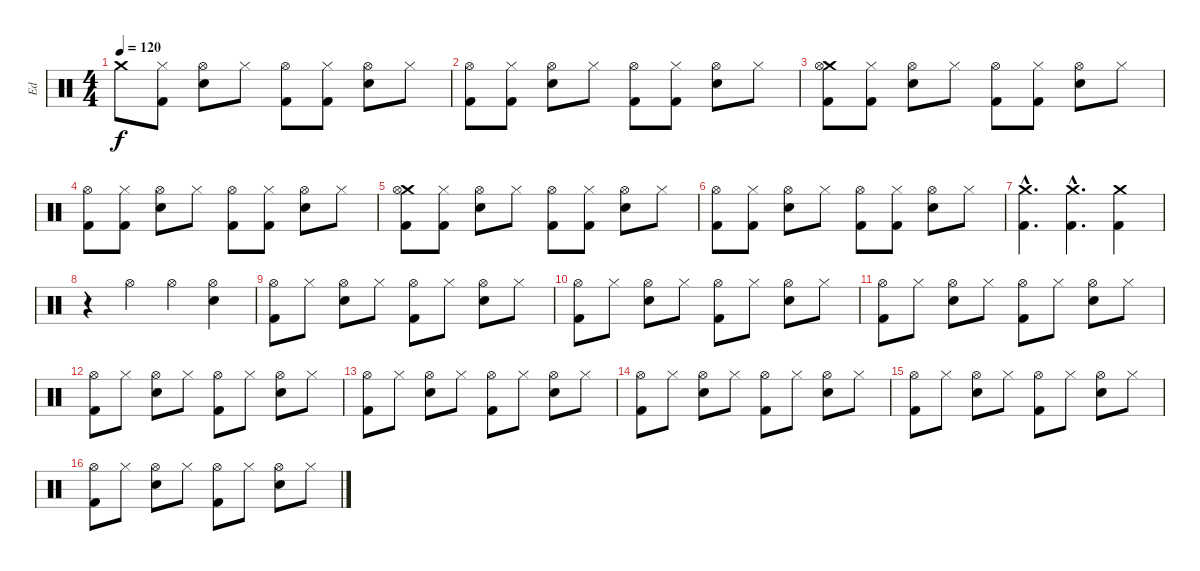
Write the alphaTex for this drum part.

\track ("Ed" "Ed") {instrument percussion}
\staff {score}
\articulation defaults
\ts (4 4)
\tempo 120
\clef neutral
\ks c "Crash medium (hit)"{t}.8{dy f}
("Hi-Hat (closed)" "Kick (hit) 2").8 ("Hi-Hat (open)" "Snare (hit) 2").8 "Hi-Hat (closed)".8 ("Kick (hit) 2" "Hi-Hat (open)").8 ("Kick (hit) 2" "Hi-Hat (closed)").8 ("Snare (hit) 2" "Hi-Hat (open)").8 "Hi-Hat (closed)".8 |
("Hi-Hat (open)" "Kick (hit) 2").8 ("Hi-Hat (closed)" "Kick (hit) 2").8 ("Hi-Hat (open)" "Snare (hit) 2").8 "Hi-Hat (closed)".8 ("Hi-Hat (open)" "Kick (hit) 2").8 ("Hi-Hat (closed)" "Kick (hit) 2").8 ("Hi-Hat (open)" "Snare (hit) 2").8 "Hi-Hat (closed)".8 |
("Crash medium (hit)" "Hi-Hat (open)" "Kick (hit) 2").8 ("Hi-Hat (closed)" "Kick (hit) 2").8 ("Hi-Hat (open)" "Snare (hit) 2").8 "Hi-Hat (closed)".8 ("Hi-Hat (open)" "Kick (hit) 2").8 ("Hi-Hat (closed)" "Kick (hit) 2").8 ("Hi-Hat (open)" "Snare (hit) 2").8 "Hi-Hat (closed)".8 |
("Hi-Hat (open)" "Kick (hit) 2").8 ("Hi-Hat (closed)" "Kick (hit) 2").8 ("Hi-Hat (open)" "Snare (hit) 2").8 "Hi-Hat (closed)".8 ("Hi-Hat (open)" "Kick (hit) 2").8 ("Hi-Hat (closed)" "Kick (hit) 2").8 ("Hi-Hat (open)" "Snare (hit) 2").8 "Hi-Hat (closed)".8 |
("Crash medium (hit)" "Hi-Hat (open)" "Kick (hit) 2").8 ("Hi-Hat (closed)" "Kick (hit) 2").8 ("Hi-Hat (open)" "Snare (hit) 2").8 "Hi-Hat (closed)".8 ("Hi-Hat (open)" "Kick (hit) 2").8 ("Hi-Hat (closed)" "Kick (hit) 2").8 ("Hi-Hat (open)" "Snare (hit) 2").8 "Hi-Hat (closed)".8 |
("Hi-Hat (open)" "Kick (hit) 2").8 ("Hi-Hat (closed)" "Kick (hit) 2").8 ("Hi-Hat (open)" "Snare (hit) 2").8 "Hi-Hat (closed)".8 ("Hi-Hat (open)" "Kick (hit) 2").8 ("Hi-Hat (closed)" "Kick (hit) 2").8 ("Hi-Hat (open)" "Snare (hit) 2").8 "Hi-Hat (closed)".8 |
("Crash medium (hit)"{hac} "Kick (hit) 2"{hac}).4{d} ("Crash medium (hit)"{hac} "Kick (hit) 2"{hac}).4{d} ("Crash medium (hit)" "Kick (hit) 2").4 |
r.4 "Hi-Hat (open)".4 "Hi-Hat (open)".4 ("Snare (hit) 2" "Hi-Hat (open)").4 |
("Hi-Hat (open)" "Kick (hit) 2").8 "Hi-Hat (closed)".8 ("Hi-Hat (open)" "Snare (hit) 2").8 "Hi-Hat (closed)".8 ("Hi-Hat (open)" "Kick (hit) 2").8 "Hi-Hat (closed)".8 ("Hi-Hat (open)" "Snare (hit) 2").8 "Hi-Hat (closed)".8 |
("Hi-Hat (open)" "Kick (hit) 2").8 "Hi-Hat (closed)".8 ("Hi-Hat (open)" "Snare (hit) 2").8 "Hi-Hat (closed)".8 ("Hi-Hat (open)" "Kick (hit) 2").8 "Hi-Hat (closed)".8 ("Hi-Hat (open)" "Snare (hit) 2").8 "Hi-Hat (closed)".8 |
("Hi-Hat (open)" "Kick (hit) 2").8 "Hi-Hat (closed)".8 ("Hi-Hat (open)" "Snare (hit) 2").8 "Hi-Hat (closed)".8 ("Hi-Hat (open)" "Kick (hit) 2").8 "Hi-Hat (closed)".8 ("Hi-Hat (open)" "Snare (hit) 2").8 "Hi-Hat (closed)".8 |
("Hi-Hat (open)" "Kick (hit) 2").8 "Hi-Hat (closed)".8 ("Hi-Hat (open)" "Snare (hit) 2").8 "Hi-Hat (closed)".8 ("Hi-Hat (open)" "Kick (hit) 2").8 "Hi-Hat (closed)".8 ("Hi-Hat (open)" "Snare (hit) 2").8 "Hi-Hat (closed)".8 |
("Hi-Hat (open)" "Kick (hit) 2").8 "Hi-Hat (closed)".8 ("Hi-Hat (open)" "Snare (hit) 2").8 "Hi-Hat (closed)".8 ("Hi-Hat (open)" "Kick (hit) 2").8 "Hi-Hat (closed)".8 ("Hi-Hat (open)" "Snare (hit) 2").8 "Hi-Hat (closed)".8 |
("Hi-Hat (open)" "Kick (hit) 2").8 "Hi-Hat (closed)".8 ("Hi-Hat (open)" "Snare (hit) 2").8 "Hi-Hat (closed)".8 ("Hi-Hat (open)" "Kick (hit) 2").8 "Hi-Hat (closed)".8 ("Hi-Hat (open)" "Snare (hit) 2").8 "Hi-Hat (closed)".8 |
("Hi-Hat (open)" "Kick (hit) 2").8 "Hi-Hat (closed)".8 ("Hi-Hat (open)" "Snare (hit) 2").8 "Hi-Hat (closed)".8 ("Hi-Hat (open)" "Kick (hit) 2").8 "Hi-Hat (closed)".8 ("Hi-Hat (open)" "Snare (hit) 2").8 "Hi-Hat (closed)".8 |
("Hi-Hat (open)" "Kick (hit) 2").8 "Hi-Hat (closed)".8 ("Hi-Hat (open)" "Snare (hit) 2").8 "Hi-Hat (closed)".8 ("Hi-Hat (open)" "Kick (hit) 2").8 "Hi-Hat (closed)".8 ("Hi-Hat (open)" "Snare (hit) 2").8 "Hi-Hat (closed)".8
